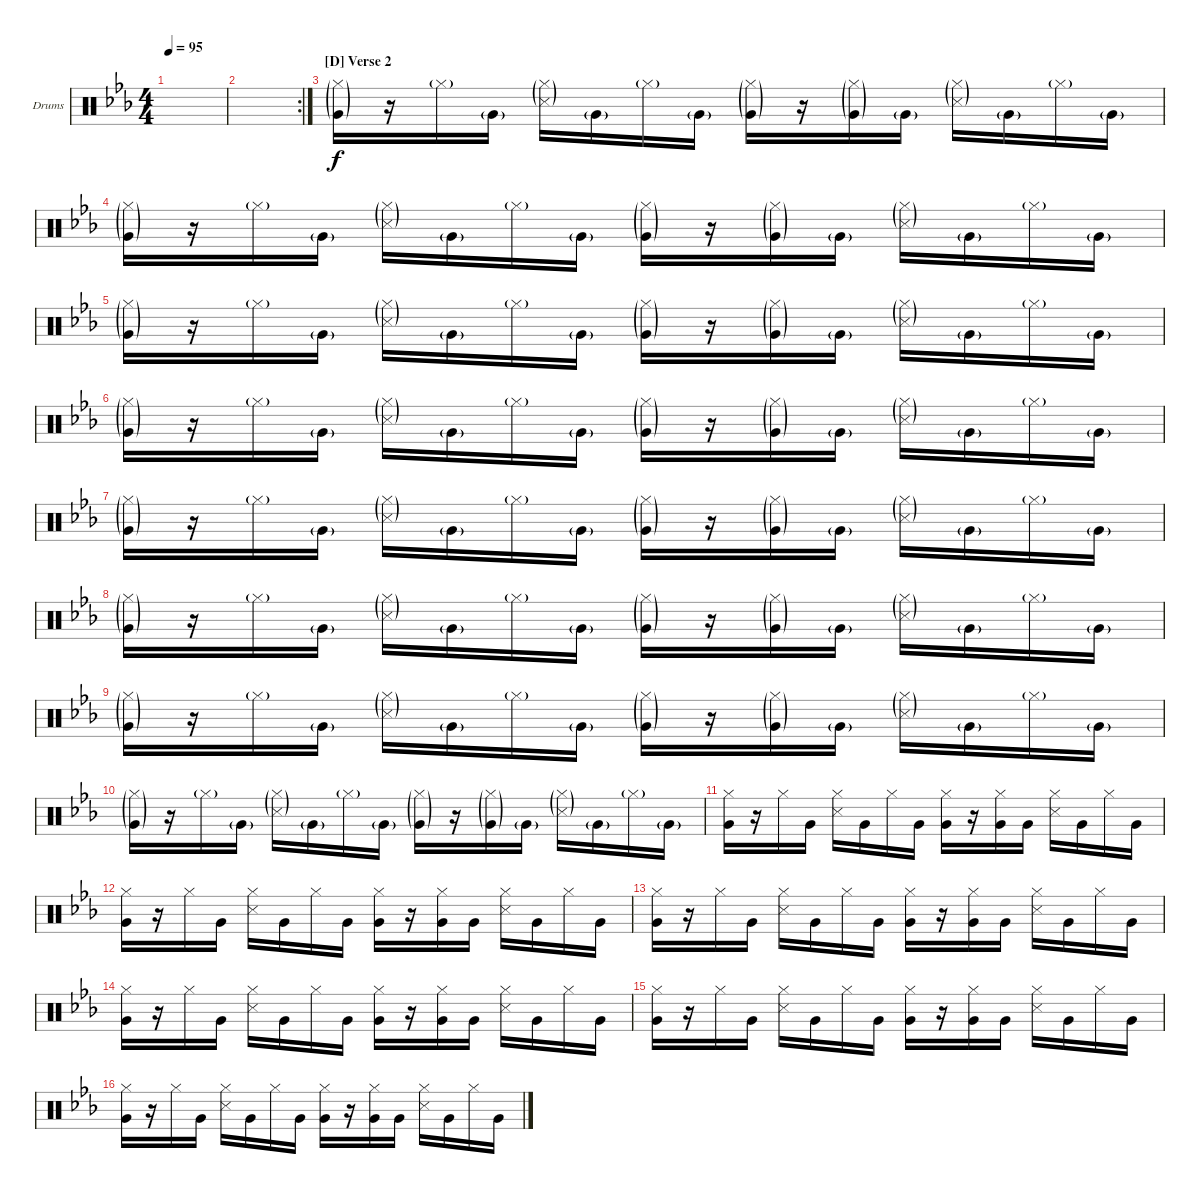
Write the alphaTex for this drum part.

\bracketExtendMode groupsimilarinstruments
\firstSystemTrackNameOrientation horizontal
\otherSystemsTrackNameOrientation horizontal
\track ("Drums" "Drums") {instrument percussion}
\staff {score}
\articulation defaults
\ts (4 4)
\tempo 95
\clef neutral
\scale
0.355932
\ks eb
|
\rc 2
\section ("" "")
\scale
0.322034 |
\section ("D" "Verse 2")
\scale
0.333333 ("Hi-Hat (closed)"{g} "Very Low Tom (hit)"{g}).16 r.16 "Hi-Hat (closed)"{g}.16 "Very Low Tom (hit)"{g}.16 ("Hi-Hat (closed)"{g} "Snare (side stick) 3"{g}).16 "Very Low Tom (hit)"{g}.16 "Hi-Hat (closed)"{g}.16 "Very Low Tom (hit)"{g}.16 ("Hi-Hat (closed)"{g} "Very Low Tom (hit)"{g}).16 r.16 ("Hi-Hat (closed)"{g} "Very Low Tom (hit)"{g}).16 "Very Low Tom (hit)"{g}.16 ("Hi-Hat (closed)"{g} "Snare (side stick) 3"{g}).16 "Very Low Tom (hit)"{g}.16 "Hi-Hat (closed)"{g}.16 "Very Low Tom (hit)"{g}.16 |
\scale
0.333333 ("Hi-Hat (closed)"{g} "Very Low Tom (hit)"{g}).16 r.16 "Hi-Hat (closed)"{g}.16 "Very Low Tom (hit)"{g}.16 ("Hi-Hat (closed)"{g} "Snare (side stick) 3"{g}).16 "Very Low Tom (hit)"{g}.16 "Hi-Hat (closed)"{g}.16 "Very Low Tom (hit)"{g}.16 ("Hi-Hat (closed)"{g} "Very Low Tom (hit)"{g}).16 r.16 ("Hi-Hat (closed)"{g} "Very Low Tom (hit)"{g}).16 "Very Low Tom (hit)"{g}.16 ("Hi-Hat (closed)"{g} "Snare (side stick) 3"{g}).16 "Very Low Tom (hit)"{g}.16 "Hi-Hat (closed)"{g}.16 "Very Low Tom (hit)"{g}.16 |
\scale
0.333333 ("Hi-Hat (closed)"{g} "Very Low Tom (hit)"{g}).16 r.16 "Hi-Hat (closed)"{g}.16 "Very Low Tom (hit)"{g}.16 ("Hi-Hat (closed)"{g} "Snare (side stick) 3"{g}).16 "Very Low Tom (hit)"{g}.16 "Hi-Hat (closed)"{g}.16 "Very Low Tom (hit)"{g}.16 ("Hi-Hat (closed)"{g} "Very Low Tom (hit)"{g}).16 r.16 ("Hi-Hat (closed)"{g} "Very Low Tom (hit)"{g}).16 "Very Low Tom (hit)"{g}.16 ("Hi-Hat (closed)"{g} "Snare (side stick) 3"{g}).16 "Very Low Tom (hit)"{g}.16 "Hi-Hat (closed)"{g}.16 "Very Low Tom (hit)"{g}.16 |
\scale
0.333333 ("Hi-Hat (closed)"{g} "Very Low Tom (hit)"{g}).16 r.16 "Hi-Hat (closed)"{g}.16 "Very Low Tom (hit)"{g}.16 ("Hi-Hat (closed)"{g} "Snare (side stick) 3"{g}).16 "Very Low Tom (hit)"{g}.16 "Hi-Hat (closed)"{g}.16 "Very Low Tom (hit)"{g}.16 ("Hi-Hat (closed)"{g} "Very Low Tom (hit)"{g}).16 r.16 ("Hi-Hat (closed)"{g} "Very Low Tom (hit)"{g}).16 "Very Low Tom (hit)"{g}.16 ("Hi-Hat (closed)"{g} "Snare (side stick) 3"{g}).16 "Very Low Tom (hit)"{g}.16 "Hi-Hat (closed)"{g}.16 "Very Low Tom (hit)"{g}.16 |
\scale
0.333333 ("Hi-Hat (closed)"{g} "Very Low Tom (hit)"{g}).16 r.16 "Hi-Hat (closed)"{g}.16 "Very Low Tom (hit)"{g}.16 ("Hi-Hat (closed)"{g} "Snare (side stick) 3"{g}).16 "Very Low Tom (hit)"{g}.16 "Hi-Hat (closed)"{g}.16 "Very Low Tom (hit)"{g}.16 ("Hi-Hat (closed)"{g} "Very Low Tom (hit)"{g}).16 r.16 ("Hi-Hat (closed)"{g} "Very Low Tom (hit)"{g}).16 "Very Low Tom (hit)"{g}.16 ("Hi-Hat (closed)"{g} "Snare (side stick) 3"{g}).16 "Very Low Tom (hit)"{g}.16 "Hi-Hat (closed)"{g}.16 "Very Low Tom (hit)"{g}.16 |
\scale
0.333333 ("Hi-Hat (closed)"{g} "Very Low Tom (hit)"{g}).16 r.16 "Hi-Hat (closed)"{g}.16 "Very Low Tom (hit)"{g}.16 ("Hi-Hat (closed)"{g} "Snare (side stick) 3"{g}).16 "Very Low Tom (hit)"{g}.16 "Hi-Hat (closed)"{g}.16 "Very Low Tom (hit)"{g}.16 ("Hi-Hat (closed)"{g} "Very Low Tom (hit)"{g}).16 r.16 ("Hi-Hat (closed)"{g} "Very Low Tom (hit)"{g}).16 "Very Low Tom (hit)"{g}.16 ("Hi-Hat (closed)"{g} "Snare (side stick) 3"{g}).16 "Very Low Tom (hit)"{g}.16 "Hi-Hat (closed)"{g}.16 "Very Low Tom (hit)"{g}.16 |
\scale
0.333333 ("Hi-Hat (closed)"{g} "Very Low Tom (hit)"{g}).16 r.16 "Hi-Hat (closed)"{g}.16 "Very Low Tom (hit)"{g}.16 ("Hi-Hat (closed)"{g} "Snare (side stick) 3"{g}).16 "Very Low Tom (hit)"{g}.16 "Hi-Hat (closed)"{g}.16 "Very Low Tom (hit)"{g}.16 ("Hi-Hat (closed)"{g} "Very Low Tom (hit)"{g}).16 r.16 ("Hi-Hat (closed)"{g} "Very Low Tom (hit)"{g}).16 "Very Low Tom (hit)"{g}.16 ("Hi-Hat (closed)"{g} "Snare (side stick) 3"{g}).16 "Very Low Tom (hit)"{g}.16 "Hi-Hat (closed)"{g}.16 "Very Low Tom (hit)"{g}.16 |
\scale
0.333333 ("Hi-Hat (closed)"{g} "Very Low Tom (hit)"{g}).16 r.16 "Hi-Hat (closed)"{g}.16 "Very Low Tom (hit)"{g}.16 ("Hi-Hat (closed)"{g} "Snare (side stick) 3"{g}).16 "Very Low Tom (hit)"{g}.16 "Hi-Hat (closed)"{g}.16 "Very Low Tom (hit)"{g}.16 ("Hi-Hat (closed)"{g} "Very Low Tom (hit)"{g}).16 r.16 ("Hi-Hat (closed)"{g} "Very Low Tom (hit)"{g}).16 "Very Low Tom (hit)"{g}.16 ("Hi-Hat (closed)"{g} "Snare (side stick) 3"{g}).16 "Very Low Tom (hit)"{g}.16 "Hi-Hat (closed)"{g}.16 "Very Low Tom (hit)"{g}.16 |
\scale
0.333333 ("Hi-Hat (closed)" "Very Low Tom (hit)").16 r.16 "Hi-Hat (closed)".16 "Very Low Tom (hit)".16 ("Hi-Hat (closed)" "Snare (side stick) 3").16 "Very Low Tom (hit)".16 "Hi-Hat (closed)".16 "Very Low Tom (hit)".16 ("Hi-Hat (closed)" "Very Low Tom (hit)").16 r.16 ("Hi-Hat (closed)" "Very Low Tom (hit)").16 "Very Low Tom (hit)".16 ("Hi-Hat (closed)" "Snare (side stick) 3").16 "Very Low Tom (hit)".16 "Hi-Hat (closed)".16 "Very Low Tom (hit)".16 |
\scale
0.333333 ("Hi-Hat (closed)" "Very Low Tom (hit)").16 r.16 "Hi-Hat (closed)".16 "Very Low Tom (hit)".16 ("Hi-Hat (closed)" "Snare (side stick) 3").16 "Very Low Tom (hit)".16 "Hi-Hat (closed)".16 "Very Low Tom (hit)".16 ("Hi-Hat (closed)" "Very Low Tom (hit)").16 r.16 ("Hi-Hat (closed)" "Very Low Tom (hit)").16 "Very Low Tom (hit)".16 ("Hi-Hat (closed)" "Snare (side stick) 3").16 "Very Low Tom (hit)".16 "Hi-Hat (closed)".16 "Very Low Tom (hit)".16 |
\scale
0.333333 ("Hi-Hat (closed)" "Very Low Tom (hit)").16 r.16 "Hi-Hat (closed)".16 "Very Low Tom (hit)".16 ("Hi-Hat (closed)" "Snare (side stick) 3").16 "Very Low Tom (hit)".16 "Hi-Hat (closed)".16 "Very Low Tom (hit)".16 ("Hi-Hat (closed)" "Very Low Tom (hit)").16 r.16 ("Hi-Hat (closed)" "Very Low Tom (hit)").16 "Very Low Tom (hit)".16 ("Hi-Hat (closed)" "Snare (side stick) 3").16 "Very Low Tom (hit)".16 "Hi-Hat (closed)".16 "Very Low Tom (hit)".16 |
\scale
0.333333 ("Hi-Hat (closed)" "Very Low Tom (hit)").16 r.16 "Hi-Hat (closed)".16 "Very Low Tom (hit)".16 ("Hi-Hat (closed)" "Snare (side stick) 3").16 "Very Low Tom (hit)".16 "Hi-Hat (closed)".16 "Very Low Tom (hit)".16 ("Hi-Hat (closed)" "Very Low Tom (hit)").16 r.16 ("Hi-Hat (closed)" "Very Low Tom (hit)").16 "Very Low Tom (hit)".16 ("Hi-Hat (closed)" "Snare (side stick) 3").16 "Very Low Tom (hit)".16 "Hi-Hat (closed)".16 "Very Low Tom (hit)".16 |
\scale
0.333333 ("Hi-Hat (closed)" "Very Low Tom (hit)").16 r.16 "Hi-Hat (closed)".16 "Very Low Tom (hit)".16 ("Hi-Hat (closed)" "Snare (side stick) 3").16 "Very Low Tom (hit)".16 "Hi-Hat (closed)".16 "Very Low Tom (hit)".16 ("Hi-Hat (closed)" "Very Low Tom (hit)").16 r.16 ("Hi-Hat (closed)" "Very Low Tom (hit)").16 "Very Low Tom (hit)".16 ("Hi-Hat (closed)" "Snare (side stick) 3").16 "Very Low Tom (hit)".16 "Hi-Hat (closed)".16 "Very Low Tom (hit)".16 |
\scale
0.333333 ("Hi-Hat (closed)" "Very Low Tom (hit)").16 r.16 "Hi-Hat (closed)".16 "Very Low Tom (hit)".16 ("Hi-Hat (closed)" "Snare (side stick) 3").16 "Very Low Tom (hit)".16 "Hi-Hat (closed)".16 "Very Low Tom (hit)".16 ("Hi-Hat (closed)" "Very Low Tom (hit)").16 r.16 ("Hi-Hat (closed)" "Very Low Tom (hit)").16 "Very Low Tom (hit)".16 ("Hi-Hat (closed)" "Snare (side stick) 3").16 "Very Low Tom (hit)".16 "Hi-Hat (closed)".16 "Very Low Tom (hit)".16
